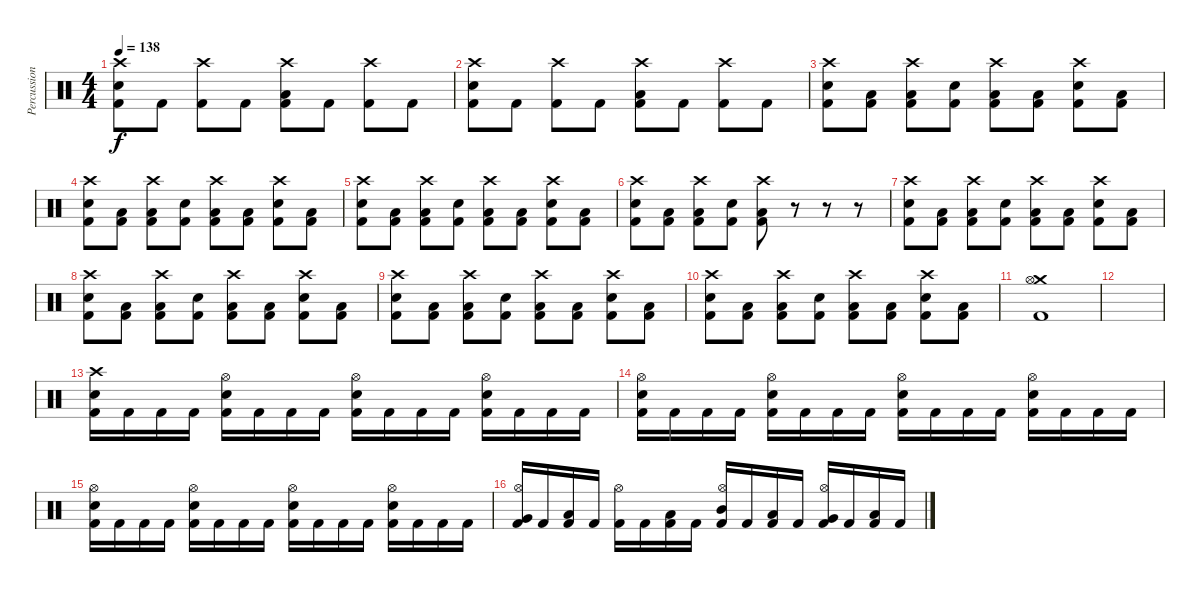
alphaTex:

\track ("Percussion" "Percussion") {instrument percussion}
\staff {score}
\articulation defaults
\ts (4 4)
\tempo 138
\clef neutral
\ks c
("Crash high (hit)" "Electric Snare (hit)" "Kick (hit) 2").8{dy f} "Kick (hit) 2".8 ("Crash high (hit)" "Kick (hit) 2").8 "Kick (hit) 2".8 ("Crash high (hit)" "Low Tom (hit)" "Kick (hit) 2").8 "Kick (hit) 2".8 ("Crash high (hit)" "Kick (hit) 2").8 "Kick (hit) 2".8 |
("Crash high (hit)" "Electric Snare (hit)" "Kick (hit) 2").8 "Kick (hit) 2".8 ("Crash high (hit)" "Kick (hit) 2").8 "Kick (hit) 2".8 ("Crash high (hit)" "Low Tom (hit)" "Kick (hit) 2").8 "Kick (hit) 2".8 ("Crash high (hit)" "Kick (hit) 2").8 "Kick (hit) 2".8 |
("Crash high (hit)" "Electric Snare (hit)" "Kick (hit) 2").8 ("Low Tom (hit)" "Kick (hit) 2").8 ("Crash high (hit)" "Low Tom (hit)" "Kick (hit) 2").8 ("Electric Snare (hit)" "Kick (hit) 2").8 ("Crash high (hit)" "Low Tom (hit)" "Kick (hit) 2").8 ("Low Tom (hit)" "Kick (hit) 2").8 ("Crash high (hit)" "Electric Snare (hit)" "Kick (hit) 2").8 ("Low Tom (hit)" "Kick (hit) 2").8 |
("Crash high (hit)" "Electric Snare (hit)" "Kick (hit) 2").8 ("Low Tom (hit)" "Kick (hit) 2").8 ("Crash high (hit)" "Low Tom (hit)" "Kick (hit) 2").8 ("Electric Snare (hit)" "Kick (hit) 2").8 ("Crash high (hit)" "Low Tom (hit)" "Kick (hit) 2").8 ("Low Tom (hit)" "Kick (hit) 2").8 ("Crash high (hit)" "Electric Snare (hit)" "Kick (hit) 2").8 ("Low Tom (hit)" "Kick (hit) 2").8 |
("Crash high (hit)" "Electric Snare (hit)" "Kick (hit) 2").8 ("Low Tom (hit)" "Kick (hit) 2").8 ("Crash high (hit)" "Low Tom (hit)" "Kick (hit) 2").8 ("Electric Snare (hit)" "Kick (hit) 2").8 ("Crash high (hit)" "Low Tom (hit)" "Kick (hit) 2").8 ("Low Tom (hit)" "Kick (hit) 2").8 ("Crash high (hit)" "Electric Snare (hit)" "Kick (hit) 2").8 ("Low Tom (hit)" "Kick (hit) 2").8 |
("Crash high (hit)" "Electric Snare (hit)" "Kick (hit) 2").8 ("Low Tom (hit)" "Kick (hit) 2").8 ("Crash high (hit)" "Low Tom (hit)" "Kick (hit) 2").8 ("Electric Snare (hit)" "Kick (hit) 2").8 ("Crash high (hit)" "Low Tom (hit)" "Kick (hit) 2").8 r.8 r.8 r.8 |
("Crash high (hit)" "Electric Snare (hit)" "Kick (hit) 2").8 ("Low Tom (hit)" "Kick (hit) 2").8 ("Crash high (hit)" "Low Tom (hit)" "Kick (hit) 2").8 ("Electric Snare (hit)" "Kick (hit) 2").8 ("Crash high (hit)" "Low Tom (hit)" "Kick (hit) 2").8 ("Low Tom (hit)" "Kick (hit) 2").8 ("Crash high (hit)" "Electric Snare (hit)" "Kick (hit) 2").8 ("Low Tom (hit)" "Kick (hit) 2").8 |
("Crash high (hit)" "Electric Snare (hit)" "Kick (hit) 2").8 ("Low Tom (hit)" "Kick (hit) 2").8 ("Crash high (hit)" "Low Tom (hit)" "Kick (hit) 2").8 ("Electric Snare (hit)" "Kick (hit) 2").8 ("Crash high (hit)" "Low Tom (hit)" "Kick (hit) 2").8 ("Low Tom (hit)" "Kick (hit) 2").8 ("Crash high (hit)" "Electric Snare (hit)" "Kick (hit) 2").8 ("Low Tom (hit)" "Kick (hit) 2").8 |
("Crash high (hit)" "Electric Snare (hit)" "Kick (hit) 2").8 ("Low Tom (hit)" "Kick (hit) 2").8 ("Crash high (hit)" "Low Tom (hit)" "Kick (hit) 2").8 ("Electric Snare (hit)" "Kick (hit) 2").8 ("Crash high (hit)" "Low Tom (hit)" "Kick (hit) 2").8 ("Low Tom (hit)" "Kick (hit) 2").8 ("Crash high (hit)" "Electric Snare (hit)" "Kick (hit) 2").8 ("Low Tom (hit)" "Kick (hit) 2").8 |
("Crash high (hit)" "Electric Snare (hit)" "Kick (hit) 2").8 ("Low Tom (hit)" "Kick (hit) 2").8 ("Crash high (hit)" "Low Tom (hit)" "Kick (hit) 2").8 ("Electric Snare (hit)" "Kick (hit) 2").8 ("Crash high (hit)" "Low Tom (hit)" "Kick (hit) 2").8 ("Low Tom (hit)" "Kick (hit) 2").8 ("Crash high (hit)" "Electric Snare (hit)" "Kick (hit) 2").8 ("Low Tom (hit)" "Kick (hit) 2").8 |
("Crash medium (hit)" "Hi-Hat (open)" "Kick (hit) 2").1 |
|
("Crash high (hit)" "Electric Snare (hit)" "Kick (hit) 2").16 "Kick (hit) 2".16 "Kick (hit) 2".16 "Kick (hit) 2".16 ("Hi-Hat (open)" "Electric Snare (hit)" "Kick (hit) 2").16 "Kick (hit) 2".16 "Kick (hit) 2".16 "Kick (hit) 2".16 ("Hi-Hat (open)" "Electric Snare (hit)" "Kick (hit) 2").16 "Kick (hit) 2".16 "Kick (hit) 2".16 "Kick (hit) 2".16 ("Hi-Hat (open)" "Electric Snare (hit)" "Kick (hit) 2").16 "Kick (hit) 2".16 "Kick (hit) 2".16 "Kick (hit) 2".16 |
("Hi-Hat (open)" "Electric Snare (hit)" "Kick (hit) 2").16 "Kick (hit) 2".16 "Kick (hit) 2".16 "Kick (hit) 2".16 ("Hi-Hat (open)" "Electric Snare (hit)" "Kick (hit) 2").16 "Kick (hit) 2".16 "Kick (hit) 2".16 "Kick (hit) 2".16 ("Hi-Hat (open)" "Electric Snare (hit)" "Kick (hit) 2").16 "Kick (hit) 2".16 "Kick (hit) 2".16 "Kick (hit) 2".16 ("Hi-Hat (open)" "Electric Snare (hit)" "Kick (hit) 2").16 "Kick (hit) 2".16 "Kick (hit) 2".16 "Kick (hit) 2".16 |
("Hi-Hat (open)" "Electric Snare (hit)" "Kick (hit) 2").16 "Kick (hit) 2".16 "Kick (hit) 2".16 "Kick (hit) 2".16 ("Hi-Hat (open)" "Electric Snare (hit)" "Kick (hit) 2").16 "Kick (hit) 2".16 "Kick (hit) 2".16 "Kick (hit) 2".16 ("Hi-Hat (open)" "Electric Snare (hit)" "Kick (hit) 2").16 "Kick (hit) 2".16 "Kick (hit) 2".16 "Kick (hit) 2".16 ("Hi-Hat (open)" "Electric Snare (hit)" "Kick (hit) 2").16 "Kick (hit) 2".16 "Kick (hit) 2".16 "Kick (hit) 2".16 |
("Hi-Hat (open)" "Very Low Tom (hit)" "Kick (hit) 2").16 "Kick (hit) 2".16 ("Low Tom (hit)" "Kick (hit) 2").16 "Kick (hit) 2".16 ("Hi-Hat (open)" "Kick (hit) 2").16 "Kick (hit) 2".16 ("Low Floor Tom (hit)" "Kick (hit) 2").16 "Kick (hit) 2".16 ("Hi-Hat (open)" "Mid Tom (hit)" "Kick (hit) 2").16 "Kick (hit) 2".16 ("Low Tom (hit)" "Kick (hit) 2").16 "Kick (hit) 2".16 ("Hi-Hat (open)" "Very Low Tom (hit)" "Kick (hit) 2").16 "Kick (hit) 2".16 ("Low Tom (hit)" "Kick (hit) 2").16 "Kick (hit) 2".16
